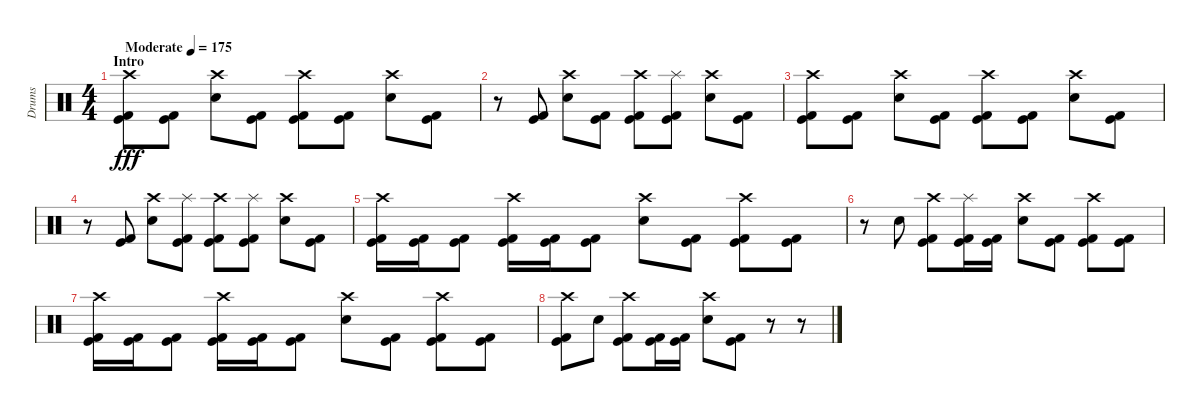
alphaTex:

\track ("Drums" "Drums") {instrument percussion}
\staff {score}
\articulation defaults
\ts (4 4)
\section ("" "Intro")
\tempo (175 "Moderate")
\clef neutral
\ks c
("Crash high (hit)" "Kick (hit)" "Kick (hit) 2").8{dy fff} ("Kick (hit)" "Kick (hit) 2").8 ("Crash high (hit)" "Electric Snare (hit)").8 ("Kick (hit)" "Kick (hit) 2").8 ("Crash high (hit)" "Kick (hit)" "Kick (hit) 2").8 ("Kick (hit)" "Kick (hit) 2").8 ("Crash high (hit)" "Electric Snare (hit)").8 ("Kick (hit)" "Kick (hit) 2").8 |
r.8 ("Kick (hit)" "Kick (hit) 2").8 ("Crash high (hit)" "Electric Snare (hit)").8 ("Kick (hit)" "Kick (hit) 2").8 ("Crash high (hit)" "Kick (hit)" "Kick (hit) 2").8 ("Splash (hit)" "Kick (hit)" "Kick (hit) 2").8 ("Crash high (hit)" "Electric Snare (hit)").8 ("Kick (hit)" "Kick (hit) 2").8 |
("Crash high (hit)" "Kick (hit)" "Kick (hit) 2").8 ("Kick (hit)" "Kick (hit) 2").8 ("Crash high (hit)" "Electric Snare (hit)").8 ("Kick (hit)" "Kick (hit) 2").8 ("Crash high (hit)" "Kick (hit)" "Kick (hit) 2").8 ("Kick (hit)" "Kick (hit) 2").8 ("Crash high (hit)" "Electric Snare (hit)").8 ("Kick (hit)" "Kick (hit) 2").8 |
r.8 ("Kick (hit)" "Kick (hit) 2").8 ("Crash high (hit)" "Electric Snare (hit)").8 ("Splash (hit)" "Kick (hit)" "Kick (hit) 2").8 ("Crash high (hit)" "Kick (hit)" "Kick (hit) 2").8 ("Splash (hit)" "Kick (hit)" "Kick (hit) 2").8 ("Crash high (hit)" "Electric Snare (hit)").8 ("Kick (hit)" "Kick (hit) 2").8 |
("Crash high (hit)" "Kick (hit)" "Kick (hit) 2").16 ("Kick (hit)" "Kick (hit) 2").16 ("Kick (hit)" "Kick (hit) 2").8 ("Crash high (hit)" "Kick (hit)" "Kick (hit) 2").16 ("Kick (hit)" "Kick (hit) 2").16 ("Kick (hit)" "Kick (hit) 2").8 ("Crash high (hit)" "Electric Snare (hit)").8 ("Kick (hit)" "Kick (hit) 2").8 ("Crash high (hit)" "Kick (hit)" "Kick (hit) 2").8 ("Kick (hit)" "Kick (hit) 2").8 |
r.8 "Electric Snare (hit)".8 ("Crash high (hit)" "Kick (hit)" "Kick (hit) 2").8 ("Splash (hit)" "Kick (hit)" "Kick (hit) 2").16 ("Kick (hit)" "Kick (hit) 2").16 ("Crash high (hit)" "Electric Snare (hit)").8 ("Kick (hit)" "Kick (hit) 2").8 ("Crash high (hit)" "Kick (hit)" "Kick (hit) 2").8 ("Kick (hit)" "Kick (hit) 2").8 |
("Crash high (hit)" "Kick (hit)" "Kick (hit) 2").16 ("Kick (hit)" "Kick (hit) 2").16 ("Kick (hit)" "Kick (hit) 2").8 ("Crash high (hit)" "Kick (hit)" "Kick (hit) 2").16 ("Kick (hit)" "Kick (hit) 2").16 ("Kick (hit)" "Kick (hit) 2").8 ("Crash high (hit)" "Electric Snare (hit)").8 ("Kick (hit)" "Kick (hit) 2").8 ("Crash high (hit)" "Kick (hit)" "Kick (hit) 2").8 ("Kick (hit)" "Kick (hit) 2").8 |
("Crash high (hit)" "Kick (hit)" "Kick (hit) 2").8 "Electric Snare (hit)".8 ("Crash high (hit)" "Kick (hit)" "Kick (hit) 2").8 ("Kick (hit)" "Kick (hit) 2").16 ("Kick (hit)" "Kick (hit) 2").16 ("Crash high (hit)" "Electric Snare (hit)").8 ("Kick (hit)" "Kick (hit) 2").8 r.8 r.8
